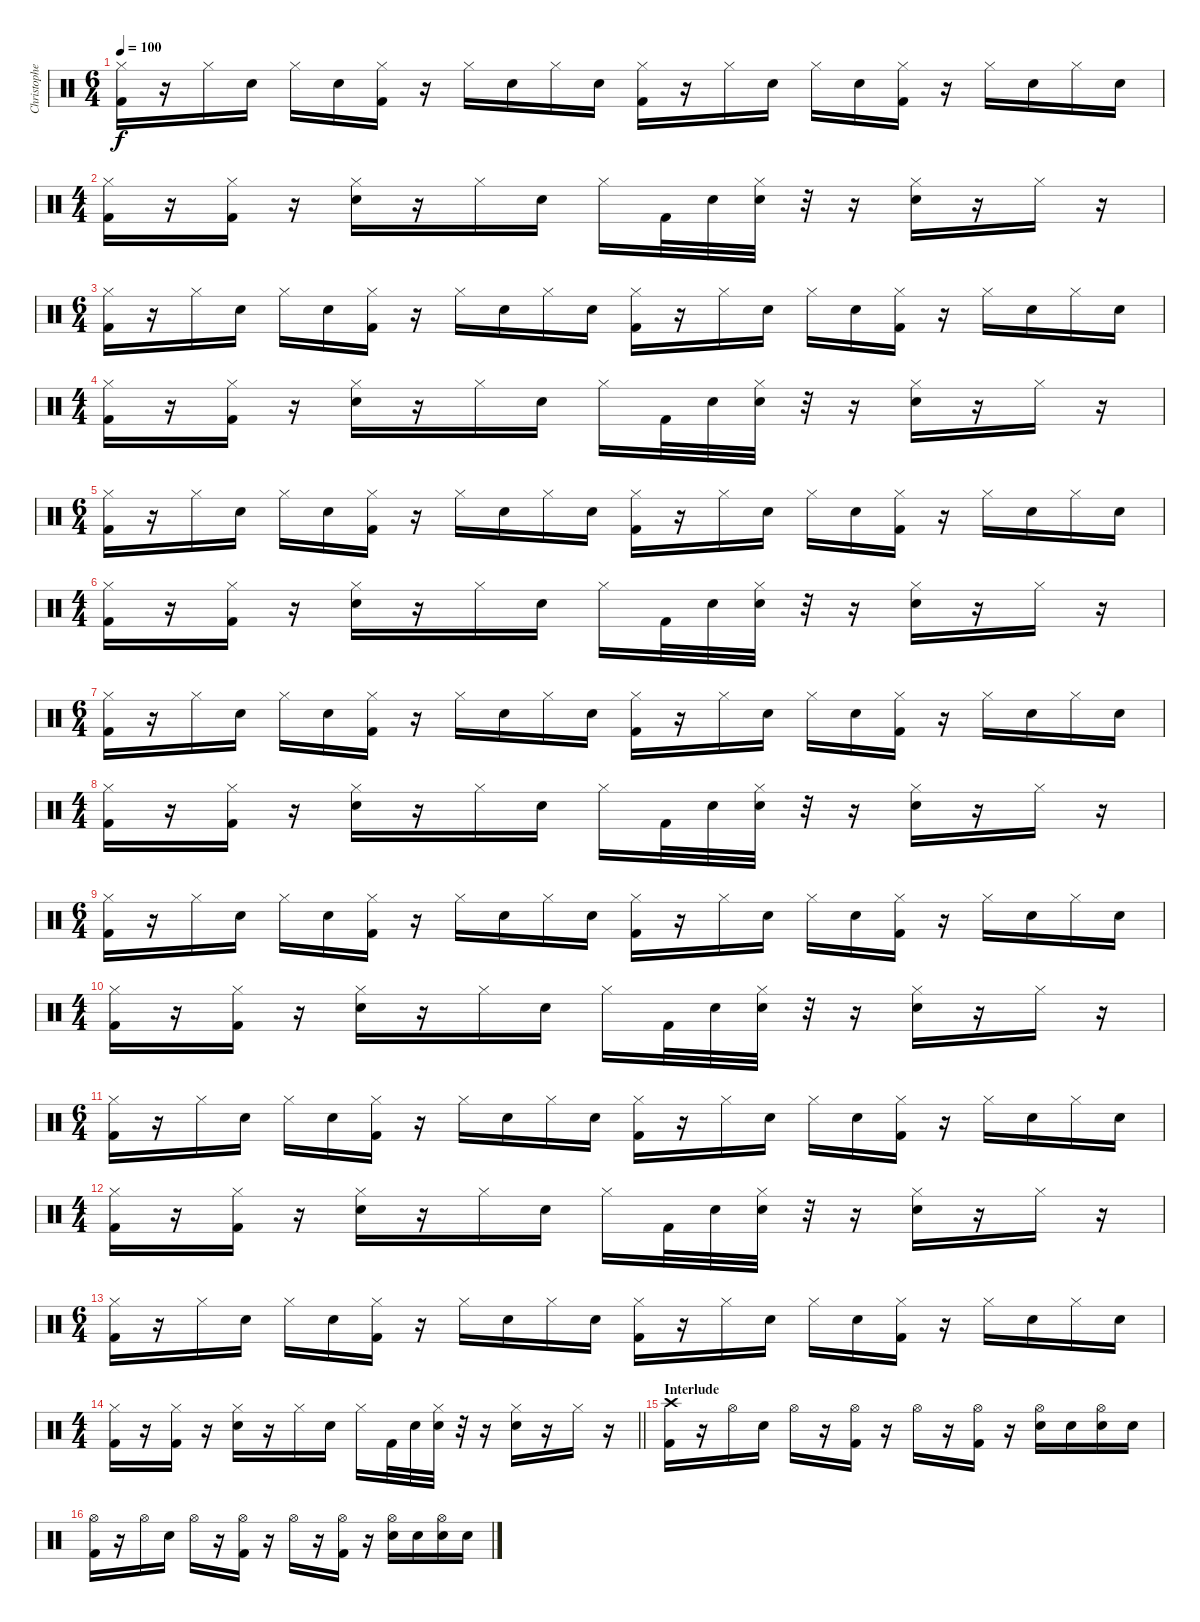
\track ("Christopher - Drums" "Christophe") {instrument percussion}
\staff {score}
\articulation defaults
\ts (6 4)
\tempo 100
\clef neutral
\ks c
("Hi-Hat (closed)" "Kick (hit) 2").16{dy f} r.16 "Hi-Hat (closed)".16 "Electric Snare (hit)".16 "Hi-Hat (closed)".16 "Electric Snare (hit)".16 ("Hi-Hat (closed)" "Kick (hit) 2").16 r.16 "Hi-Hat (closed)".16 "Electric Snare (hit)".16 "Hi-Hat (closed)".16 "Electric Snare (hit)".16 ("Hi-Hat (closed)" "Kick (hit) 2").16 r.16 "Hi-Hat (closed)".16 "Electric Snare (hit)".16 "Hi-Hat (closed)".16 "Electric Snare (hit)".16 ("Hi-Hat (closed)" "Kick (hit) 2").16 r.16 "Hi-Hat (closed)".16 "Electric Snare (hit)".16 "Hi-Hat (closed)".16 "Electric Snare (hit)".16 |
\ts (4 4)
("Hi-Hat (closed)" "Kick (hit) 2").16 r.16 ("Hi-Hat (closed)" "Kick (hit) 2").16 r.16 ("Hi-Hat (closed)" "Electric Snare (hit)").16 r.16 "Hi-Hat (closed)".16 "Electric Snare (hit)".16 "Hi-Hat (closed)".16 "Kick (hit) 2".32 "Electric Snare (hit)".32 ("Hi-Hat (closed)" "Electric Snare (hit)").32 r.32 r.16 ("Hi-Hat (closed)" "Electric Snare (hit)").16 r.16 "Hi-Hat (closed)".16 r.16 |
\ts (6 4)
("Hi-Hat (closed)" "Kick (hit) 2").16 r.16 "Hi-Hat (closed)".16 "Electric Snare (hit)".16 "Hi-Hat (closed)".16 "Electric Snare (hit)".16 ("Hi-Hat (closed)" "Kick (hit) 2").16 r.16 "Hi-Hat (closed)".16 "Electric Snare (hit)".16 "Hi-Hat (closed)".16 "Electric Snare (hit)".16 ("Hi-Hat (closed)" "Kick (hit) 2").16 r.16 "Hi-Hat (closed)".16 "Electric Snare (hit)".16 "Hi-Hat (closed)".16 "Electric Snare (hit)".16 ("Hi-Hat (closed)" "Kick (hit) 2").16 r.16 "Hi-Hat (closed)".16 "Electric Snare (hit)".16 "Hi-Hat (closed)".16 "Electric Snare (hit)".16 |
\ts (4 4)
("Hi-Hat (closed)" "Kick (hit) 2").16 r.16 ("Hi-Hat (closed)" "Kick (hit) 2").16 r.16 ("Hi-Hat (closed)" "Electric Snare (hit)").16 r.16 "Hi-Hat (closed)".16 "Electric Snare (hit)".16 "Hi-Hat (closed)".16 "Kick (hit) 2".32 "Electric Snare (hit)".32 ("Hi-Hat (closed)" "Electric Snare (hit)").32 r.32 r.16 ("Hi-Hat (closed)" "Electric Snare (hit)").16 r.16 "Hi-Hat (closed)".16 r.16 |
\ts (6 4)
("Hi-Hat (closed)" "Kick (hit) 2").16 r.16 "Hi-Hat (closed)".16 "Electric Snare (hit)".16 "Hi-Hat (closed)".16 "Electric Snare (hit)".16 ("Hi-Hat (closed)" "Kick (hit) 2").16 r.16 "Hi-Hat (closed)".16 "Electric Snare (hit)".16 "Hi-Hat (closed)".16 "Electric Snare (hit)".16 ("Hi-Hat (closed)" "Kick (hit) 2").16 r.16 "Hi-Hat (closed)".16 "Electric Snare (hit)".16 "Hi-Hat (closed)".16 "Electric Snare (hit)".16 ("Hi-Hat (closed)" "Kick (hit) 2").16 r.16 "Hi-Hat (closed)".16 "Electric Snare (hit)".16 "Hi-Hat (closed)".16 "Electric Snare (hit)".16 |
\ts (4 4)
("Hi-Hat (closed)" "Kick (hit) 2").16 r.16 ("Hi-Hat (closed)" "Kick (hit) 2").16 r.16 ("Hi-Hat (closed)" "Electric Snare (hit)").16 r.16 "Hi-Hat (closed)".16 "Electric Snare (hit)".16 "Hi-Hat (closed)".16 "Kick (hit) 2".32 "Electric Snare (hit)".32 ("Hi-Hat (closed)" "Electric Snare (hit)").32 r.32 r.16 ("Hi-Hat (closed)" "Electric Snare (hit)").16 r.16 "Hi-Hat (closed)".16 r.16 |
\ts (6 4)
("Hi-Hat (closed)" "Kick (hit) 2").16 r.16 "Hi-Hat (closed)".16 "Electric Snare (hit)".16 "Hi-Hat (closed)".16 "Electric Snare (hit)".16 ("Hi-Hat (closed)" "Kick (hit) 2").16 r.16 "Hi-Hat (closed)".16 "Electric Snare (hit)".16 "Hi-Hat (closed)".16 "Electric Snare (hit)".16 ("Hi-Hat (closed)" "Kick (hit) 2").16 r.16 "Hi-Hat (closed)".16 "Electric Snare (hit)".16 "Hi-Hat (closed)".16 "Electric Snare (hit)".16 ("Hi-Hat (closed)" "Kick (hit) 2").16 r.16 "Hi-Hat (closed)".16 "Electric Snare (hit)".16 "Hi-Hat (closed)".16 "Electric Snare (hit)".16 |
\ts (4 4)
("Hi-Hat (closed)" "Kick (hit) 2").16 r.16 ("Hi-Hat (closed)" "Kick (hit) 2").16 r.16 ("Hi-Hat (closed)" "Electric Snare (hit)").16 r.16 "Hi-Hat (closed)".16 "Electric Snare (hit)".16 "Hi-Hat (closed)".16 "Kick (hit) 2".32 "Electric Snare (hit)".32 ("Hi-Hat (closed)" "Electric Snare (hit)").32 r.32 r.16 ("Hi-Hat (closed)" "Electric Snare (hit)").16 r.16 "Hi-Hat (closed)".16 r.16 |
\ts (6 4)
("Hi-Hat (closed)" "Kick (hit) 2").16 r.16 "Hi-Hat (closed)".16 "Electric Snare (hit)".16 "Hi-Hat (closed)".16 "Electric Snare (hit)".16 ("Hi-Hat (closed)" "Kick (hit) 2").16 r.16 "Hi-Hat (closed)".16 "Electric Snare (hit)".16 "Hi-Hat (closed)".16 "Electric Snare (hit)".16 ("Hi-Hat (closed)" "Kick (hit) 2").16 r.16 "Hi-Hat (closed)".16 "Electric Snare (hit)".16 "Hi-Hat (closed)".16 "Electric Snare (hit)".16 ("Hi-Hat (closed)" "Kick (hit) 2").16 r.16 "Hi-Hat (closed)".16 "Electric Snare (hit)".16 "Hi-Hat (closed)".16 "Electric Snare (hit)".16 |
\ts (4 4)
("Hi-Hat (closed)" "Kick (hit) 2").16 r.16 ("Hi-Hat (closed)" "Kick (hit) 2").16 r.16 ("Hi-Hat (closed)" "Electric Snare (hit)").16 r.16 "Hi-Hat (closed)".16 "Electric Snare (hit)".16 "Hi-Hat (closed)".16 "Kick (hit) 2".32 "Electric Snare (hit)".32 ("Hi-Hat (closed)" "Electric Snare (hit)").32 r.32 r.16 ("Hi-Hat (closed)" "Electric Snare (hit)").16 r.16 "Hi-Hat (closed)".16 r.16 |
\ts (6 4)
("Hi-Hat (closed)" "Kick (hit) 2").16 r.16 "Hi-Hat (closed)".16 "Electric Snare (hit)".16 "Hi-Hat (closed)".16 "Electric Snare (hit)".16 ("Hi-Hat (closed)" "Kick (hit) 2").16 r.16 "Hi-Hat (closed)".16 "Electric Snare (hit)".16 "Hi-Hat (closed)".16 "Electric Snare (hit)".16 ("Hi-Hat (closed)" "Kick (hit) 2").16 r.16 "Hi-Hat (closed)".16 "Electric Snare (hit)".16 "Hi-Hat (closed)".16 "Electric Snare (hit)".16 ("Hi-Hat (closed)" "Kick (hit) 2").16 r.16 "Hi-Hat (closed)".16 "Electric Snare (hit)".16 "Hi-Hat (closed)".16 "Electric Snare (hit)".16 |
\ts (4 4)
("Hi-Hat (closed)" "Kick (hit) 2").16 r.16 ("Hi-Hat (closed)" "Kick (hit) 2").16 r.16 ("Hi-Hat (closed)" "Electric Snare (hit)").16 r.16 "Hi-Hat (closed)".16 "Electric Snare (hit)".16 "Hi-Hat (closed)".16 "Kick (hit) 2".32 "Electric Snare (hit)".32 ("Hi-Hat (closed)" "Electric Snare (hit)").32 r.32 r.16 ("Hi-Hat (closed)" "Electric Snare (hit)").16 r.16 "Hi-Hat (closed)".16 r.16 |
\ts (6 4)
("Hi-Hat (closed)" "Kick (hit) 2").16 r.16 "Hi-Hat (closed)".16 "Electric Snare (hit)".16 "Hi-Hat (closed)".16 "Electric Snare (hit)".16 ("Hi-Hat (closed)" "Kick (hit) 2").16 r.16 "Hi-Hat (closed)".16 "Electric Snare (hit)".16 "Hi-Hat (closed)".16 "Electric Snare (hit)".16 ("Hi-Hat (closed)" "Kick (hit) 2").16 r.16 "Hi-Hat (closed)".16 "Electric Snare (hit)".16 "Hi-Hat (closed)".16 "Electric Snare (hit)".16 ("Hi-Hat (closed)" "Kick (hit) 2").16 r.16 "Hi-Hat (closed)".16 "Electric Snare (hit)".16 "Hi-Hat (closed)".16 "Electric Snare (hit)".16 |
\ts (4 4)
\barLineRight lightlight
("Hi-Hat (closed)" "Kick (hit) 2").16 r.16 ("Hi-Hat (closed)" "Kick (hit) 2").16 r.16 ("Hi-Hat (closed)" "Electric Snare (hit)").16 r.16 "Hi-Hat (closed)".16 "Electric Snare (hit)".16 "Hi-Hat (closed)".16 "Kick (hit) 2".32 "Electric Snare (hit)".32 ("Hi-Hat (closed)" "Electric Snare (hit)").32 r.32 r.16 ("Hi-Hat (closed)" "Electric Snare (hit)").16 r.16 "Hi-Hat (closed)".16 r.16 |
\section ("" "Interlude")
("Crash high (hit)" "Kick (hit) 2").16 r.16 "Hi-Hat (open)".16 "Electric Snare (hit)".16 "Hi-Hat (open)".16 r.16 ("Hi-Hat (open)" "Kick (hit) 2").16 r.16 "Hi-Hat (open)".16 r.16 ("Hi-Hat (open)" "Kick (hit) 2").16 r.16 ("Hi-Hat (open)" "Electric Snare (hit)").16 "Electric Snare (hit)".16 ("Hi-Hat (open)" "Electric Snare (hit)").16 "Electric Snare (hit)".16 |
("Hi-Hat (open)" "Kick (hit) 2").16 r.16 "Hi-Hat (open)".16 "Electric Snare (hit)".16 "Hi-Hat (open)".16 r.16 ("Hi-Hat (open)" "Kick (hit) 2").16 r.16 "Hi-Hat (open)".16 r.16 ("Hi-Hat (open)" "Kick (hit) 2").16 r.16 ("Hi-Hat (open)" "Electric Snare (hit)").16 "Electric Snare (hit)".16 ("Hi-Hat (open)" "Electric Snare (hit)").16 "Electric Snare (hit)".16
